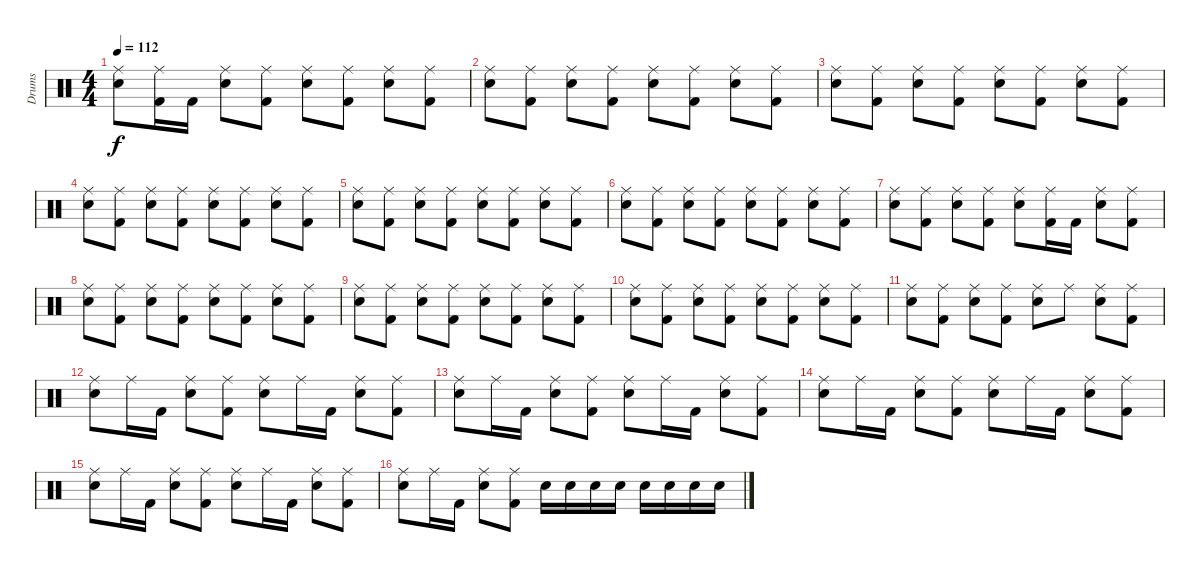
\track ("Drums" "Drums") {instrument percussion}
\staff {score}
\articulation defaults
\ts (4 4)
\tempo 112
\clef neutral
\ks c
("Ride (middle)" "Electric Snare (hit)").8{dy f} ("Ride (middle)" "Kick (hit) 2").16 "Kick (hit) 2".16 ("Ride (middle)" "Electric Snare (hit)").8 ("Ride (middle)" "Kick (hit) 2").8 ("Ride (middle)" "Electric Snare (hit)").8 ("Ride (middle)" "Kick (hit) 2").8 ("Ride (middle)" "Electric Snare (hit)").8 ("Ride (middle)" "Kick (hit) 2").8 |
("Ride (middle)" "Electric Snare (hit)").8 ("Ride (middle)" "Kick (hit) 2").8 ("Ride (middle)" "Electric Snare (hit)").8 ("Ride (middle)" "Kick (hit) 2").8 ("Ride (middle)" "Electric Snare (hit)").8 ("Ride (middle)" "Kick (hit) 2").8 ("Ride (middle)" "Electric Snare (hit)").8 ("Ride (middle)" "Kick (hit) 2").8 |
("Ride (middle)" "Electric Snare (hit)").8 ("Ride (middle)" "Kick (hit) 2").8 ("Ride (middle)" "Electric Snare (hit)").8 ("Ride (middle)" "Kick (hit) 2").8 ("Ride (middle)" "Electric Snare (hit)").8 ("Ride (middle)" "Kick (hit) 2").8 ("Ride (middle)" "Electric Snare (hit)").8 ("Ride (middle)" "Kick (hit) 2").8 |
("Ride (middle)" "Electric Snare (hit)").8 ("Ride (middle)" "Kick (hit) 2").8 ("Ride (middle)" "Electric Snare (hit)").8 ("Ride (middle)" "Kick (hit) 2").8 ("Ride (middle)" "Electric Snare (hit)").8 ("Ride (middle)" "Kick (hit) 2").8 ("Ride (middle)" "Electric Snare (hit)").8 ("Ride (middle)" "Kick (hit) 2").8 |
("Ride (middle)" "Electric Snare (hit)").8 ("Ride (middle)" "Kick (hit) 2").8 ("Ride (middle)" "Electric Snare (hit)").8 ("Ride (middle)" "Kick (hit) 2").8 ("Ride (middle)" "Electric Snare (hit)").8 ("Ride (middle)" "Kick (hit) 2").8 ("Ride (middle)" "Electric Snare (hit)").8 ("Ride (middle)" "Kick (hit) 2").8 |
("Ride (middle)" "Electric Snare (hit)").8 ("Ride (middle)" "Kick (hit) 2").8 ("Ride (middle)" "Electric Snare (hit)").8 ("Ride (middle)" "Kick (hit) 2").8 ("Ride (middle)" "Electric Snare (hit)").8 ("Ride (middle)" "Kick (hit) 2").8 ("Ride (middle)" "Electric Snare (hit)").8 ("Ride (middle)" "Kick (hit) 2").8 |
("Ride (middle)" "Electric Snare (hit)").8 ("Ride (middle)" "Kick (hit) 2").8 ("Ride (middle)" "Electric Snare (hit)").8 ("Ride (middle)" "Kick (hit) 2").8 ("Ride (middle)" "Electric Snare (hit)").8 ("Ride (middle)" "Kick (hit) 2").16 "Kick (hit) 2".16 ("Ride (middle)" "Electric Snare (hit)").8 ("Ride (middle)" "Kick (hit) 2").8 |
("Ride (middle)" "Electric Snare (hit)").8 ("Ride (middle)" "Kick (hit) 2").8 ("Ride (middle)" "Electric Snare (hit)").8 ("Ride (middle)" "Kick (hit) 2").8 ("Ride (middle)" "Electric Snare (hit)").8 ("Ride (middle)" "Kick (hit) 2").8 ("Ride (middle)" "Electric Snare (hit)").8 ("Ride (middle)" "Kick (hit) 2").8 |
("Ride (middle)" "Electric Snare (hit)").8 ("Ride (middle)" "Kick (hit) 2").8 ("Ride (middle)" "Electric Snare (hit)").8 ("Ride (middle)" "Kick (hit) 2").8 ("Ride (middle)" "Electric Snare (hit)").8 ("Ride (middle)" "Kick (hit) 2").8 ("Ride (middle)" "Electric Snare (hit)").8 ("Ride (middle)" "Kick (hit) 2").8 |
("Ride (middle)" "Electric Snare (hit)").8 ("Ride (middle)" "Kick (hit) 2").8 ("Ride (middle)" "Electric Snare (hit)").8 ("Ride (middle)" "Kick (hit) 2").8 ("Ride (middle)" "Electric Snare (hit)").8 ("Ride (middle)" "Kick (hit) 2").8 ("Ride (middle)" "Electric Snare (hit)").8 ("Ride (middle)" "Kick (hit) 2").8 |
("Ride (middle)" "Electric Snare (hit)").8 ("Ride (middle)" "Kick (hit) 2").8 ("Ride (middle)" "Electric Snare (hit)").8 ("Ride (middle)" "Kick (hit) 2").8 ("Ride (middle)" "Electric Snare (hit)").8 "Ride (middle)".8 ("Ride (middle)" "Electric Snare (hit)").8 ("Ride (middle)" "Kick (hit) 2").8 |
("Ride (middle)" "Electric Snare (hit)").8 "Ride (middle)".16 "Kick (hit) 2".16 ("Ride (middle)" "Electric Snare (hit)").8 ("Ride (middle)" "Kick (hit) 2").8 ("Ride (middle)" "Electric Snare (hit)").8 "Ride (middle)".16 "Kick (hit) 2".16 ("Ride (middle)" "Electric Snare (hit)").8 ("Ride (middle)" "Kick (hit) 2").8 |
("Ride (middle)" "Electric Snare (hit)").8 "Ride (middle)".16 "Kick (hit) 2".16 ("Ride (middle)" "Electric Snare (hit)").8 ("Ride (middle)" "Kick (hit) 2").8 ("Ride (middle)" "Electric Snare (hit)").8 "Ride (middle)".16 "Kick (hit) 2".16 ("Ride (middle)" "Electric Snare (hit)").8 ("Ride (middle)" "Kick (hit) 2").8 |
("Ride (middle)" "Electric Snare (hit)").8 "Ride (middle)".16 "Kick (hit) 2".16 ("Ride (middle)" "Electric Snare (hit)").8 ("Ride (middle)" "Kick (hit) 2").8 ("Ride (middle)" "Electric Snare (hit)").8 "Ride (middle)".16 "Kick (hit) 2".16 ("Ride (middle)" "Electric Snare (hit)").8 ("Ride (middle)" "Kick (hit) 2").8 |
("Ride (middle)" "Electric Snare (hit)").8 "Ride (middle)".16 "Kick (hit) 2".16 ("Ride (middle)" "Electric Snare (hit)").8 ("Ride (middle)" "Kick (hit) 2").8 ("Ride (middle)" "Electric Snare (hit)").8 "Ride (middle)".16 "Kick (hit) 2".16 ("Ride (middle)" "Electric Snare (hit)").8 ("Ride (middle)" "Kick (hit) 2").8 |
("Ride (middle)" "Electric Snare (hit)").8 "Ride (middle)".16 "Kick (hit) 2".16 ("Ride (middle)" "Electric Snare (hit)").8 ("Ride (middle)" "Kick (hit) 2").8 "Electric Snare (hit)".16 "Electric Snare (hit)".16 "Electric Snare (hit)".16 "Electric Snare (hit)".16 "Electric Snare (hit)".16 "Electric Snare (hit)".16 "Electric Snare (hit)".16 "Electric Snare (hit)".16
